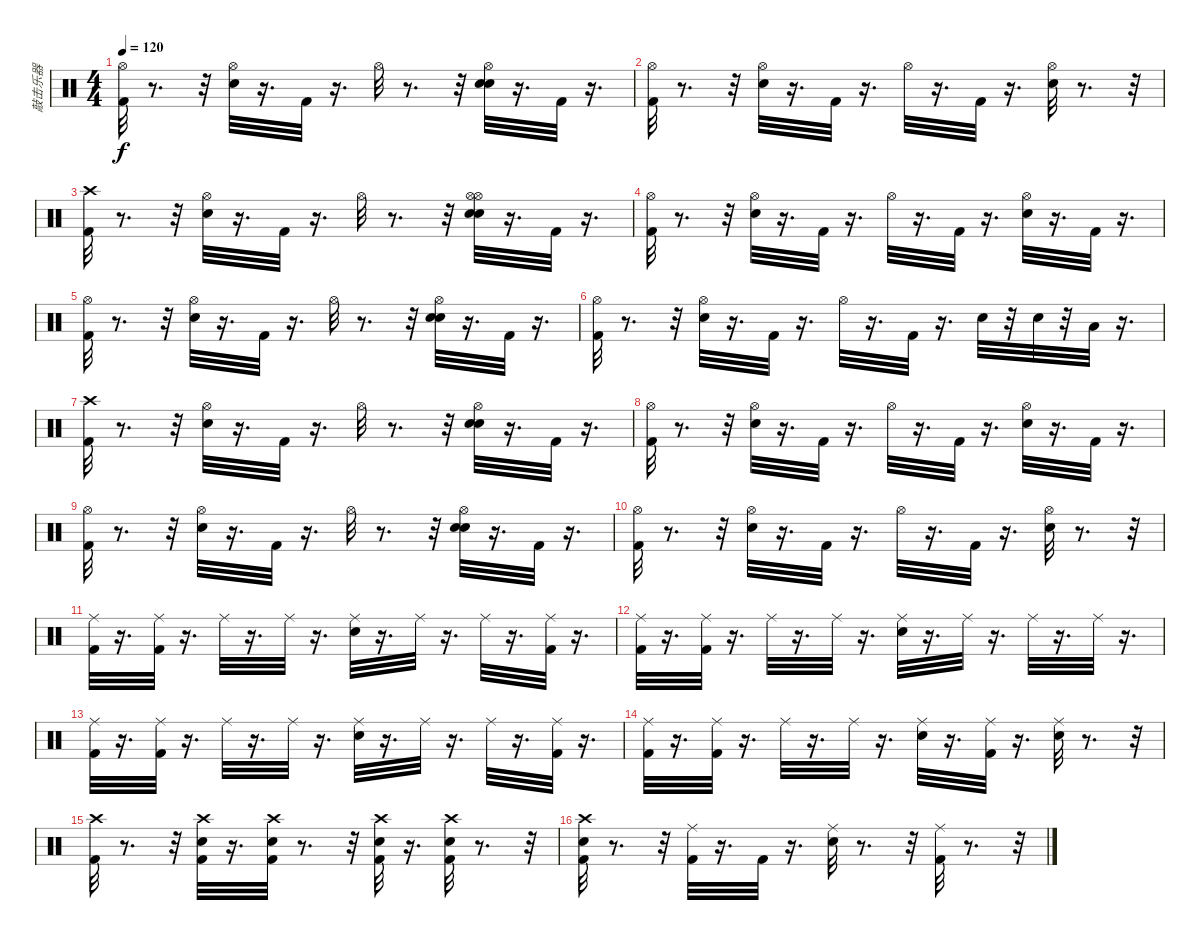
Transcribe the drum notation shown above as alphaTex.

\track ("敲击乐器" "敲击乐器") {instrument percussion}
\staff {score}
\articulation defaults
\ts (4 4)
\tempo 120
\clef neutral
\ks c
("Hi-Hat (open)" "Kick (hit) 2").32{dy f} r.8{d} r.32 ("Snare (hit) 2" "Hi-Hat (open)").32 r.16{d} "Kick (hit) 2".32 r.16{d} "Hi-Hat (open)".32 r.8{d} r.32 ("Snare (hit) 2" "Snare (hit) 2" "Hi-Hat (open)").32 r.16{d} "Kick (hit) 2".32 r.16{d} |
("Hi-Hat (open)" "Kick (hit) 2").32 r.8{d} r.32 ("Snare (hit) 2" "Hi-Hat (open)").32 r.16{d} "Kick (hit) 2".32 r.16{d} "Hi-Hat (open)".32 r.16{d} "Kick (hit) 2".32 r.16{d} ("Snare (hit) 2" "Hi-Hat (open)").32 r.8{d} r.32 |
("Kick (hit) 2" "Crash high (hit)").32 r.8{d} r.32 ("Snare (hit) 2" "Hi-Hat (open)").32 r.16{d} "Kick (hit) 2".32 r.16{d} "Hi-Hat (open)".32 r.8{d} r.32 ("Snare (hit) 2" "Hi-Hat (open)" "Snare (hit) 2" "Hi-Hat (open)").32 r.16{d} "Kick (hit) 2".32 r.16{d} |
("Kick (hit) 2" "Hi-Hat (open)").32 r.8{d} r.32 ("Snare (hit) 2" "Hi-Hat (open)").32 r.16{d} "Kick (hit) 2".32 r.16{d} "Hi-Hat (open)".32 r.16{d} "Kick (hit) 2".32 r.16{d} ("Snare (hit) 2" "Hi-Hat (open)").32 r.16{d} "Kick (hit) 2".32 r.16{d} |
("Hi-Hat (open)" "Kick (hit) 2").32 r.8{d} r.32 ("Snare (hit) 2" "Hi-Hat (open)").32 r.16{d} "Kick (hit) 2".32 r.16{d} "Hi-Hat (open)".32 r.8{d} r.32 ("Snare (hit) 2" "Snare (hit) 2" "Hi-Hat (open)").32 r.16{d} "Kick (hit) 2".32 r.16{d} |
("Kick (hit) 2" "Hi-Hat (open)").32 r.8{d} r.32 ("Snare (hit) 2" "Hi-Hat (open)").32 r.16{d} "Kick (hit) 2".32 r.16{d} "Hi-Hat (open)".32 r.16{d} "Kick (hit) 2".32 r.16{d} "Snare (hit) 2".32 r.32 "Snare (hit) 2".32 r.32 "Low Floor Tom (hit)".32 r.16{d} |
("Kick (hit) 2" "Crash high (hit)").32 r.8{d} r.32 ("Snare (hit) 2" "Hi-Hat (open)").32 r.16{d} "Kick (hit) 2".32 r.16{d} "Hi-Hat (open)".32 r.8{d} r.32 ("Snare (hit) 2" "Snare (hit) 2" "Hi-Hat (open)").32 r.16{d} "Kick (hit) 2".32 r.16{d} |
("Kick (hit) 2" "Hi-Hat (open)").32 r.8{d} r.32 ("Snare (hit) 2" "Hi-Hat (open)").32 r.16{d} "Kick (hit) 2".32 r.16{d} "Hi-Hat (open)".32 r.16{d} "Kick (hit) 2".32 r.16{d} ("Hi-Hat (open)" "Snare (hit) 2").32 r.16{d} "Kick (hit) 2".32 r.16{d} |
("Hi-Hat (open)" "Kick (hit) 2").32 r.8{d} r.32 ("Snare (hit) 2" "Hi-Hat (open)").32 r.16{d} "Kick (hit) 2".32 r.16{d} "Hi-Hat (open)".32 r.8{d} r.32 ("Snare (hit) 2" "Snare (hit) 2" "Hi-Hat (open)").32 r.16{d} "Kick (hit) 2".32 r.16{d} |
("Hi-Hat (open)" "Kick (hit) 2").32 r.8{d} r.32 ("Snare (hit) 2" "Hi-Hat (open)").32 r.16{d} "Kick (hit) 2".32 r.16{d} "Hi-Hat (open)".32 r.16{d} "Kick (hit) 2".32 r.16{d} ("Snare (hit) 2" "Hi-Hat (open)").32 r.8{d} r.32 |
("Ride (middle)" "Kick (hit) 2").32 r.16{d} ("Kick (hit) 2" "Ride (middle)").32 r.16{d} "Ride (middle)".32 r.16{d} "Ride (middle)".32 r.16{d} ("Ride (middle)" "Snare (hit) 2").32 r.16{d} "Ride (middle)".32 r.16{d} "Ride (middle)".32 r.16{d} ("Ride (middle)" "Kick (hit) 2").32 r.16{d} |
("Kick (hit) 2" "Ride (middle)").32 r.16{d} ("Kick (hit) 2" "Ride (middle)").32 r.16{d} "Ride (middle)".32 r.16{d} "Ride (middle)".32 r.16{d} ("Ride (middle)" "Snare (hit) 2").32 r.16{d} "Ride (middle)".32 r.16{d} "Ride (middle)".32 r.16{d} "Ride (middle)".32 r.16{d} |
("Ride (middle)" "Kick (hit) 2").32 r.16{d} ("Kick (hit) 2" "Ride (middle)").32 r.16{d} "Ride (middle)".32 r.16{d} "Ride (middle)".32 r.16{d} ("Ride (middle)" "Snare (hit) 2").32 r.16{d} "Ride (middle)".32 r.16{d} "Ride (middle)".32 r.16{d} ("Kick (hit) 2" "Ride (middle)").32 r.16{d} |
("Ride (middle)" "Kick (hit) 2").32 r.16{d} ("Kick (hit) 2" "Ride (middle)").32 r.16{d} "Ride (middle)".32 r.16{d} "Ride (middle)".32 r.16{d} ("Ride (middle)" "Snare (hit) 2").32 r.16{d} ("Ride (middle)" "Kick (hit) 2").32 r.16{d} ("Ride (middle)" "Snare (hit) 2").32 r.8{d} r.32 |
("Kick (hit) 2" "Crash high (hit)").32 r.8{d} r.32 ("Kick (hit) 2" "Crash high (hit)" "Snare (hit) 2").32 r.16{d} ("Snare (hit) 2" "Kick (hit) 2" "Crash high (hit)").32 r.8{d} r.32 ("Crash high (hit)" "Kick (hit) 2" "Snare (hit) 2").32 r.16{d} ("Snare (hit) 2" "Crash high (hit)" "Kick (hit) 2").32 r.8{d} r.32 |
("Kick (hit) 2" "Snare (hit) 2" "Crash high (hit)").32 r.8{d} r.32 ("Kick (hit) 2" "Ride (middle)").32 r.16{d} "Kick (hit) 2".32 r.16{d} ("Snare (hit) 2" "Ride (middle)").32 r.8{d} r.32 ("Ride (middle)" "Kick (hit) 2").32 r.8{d} r.32
